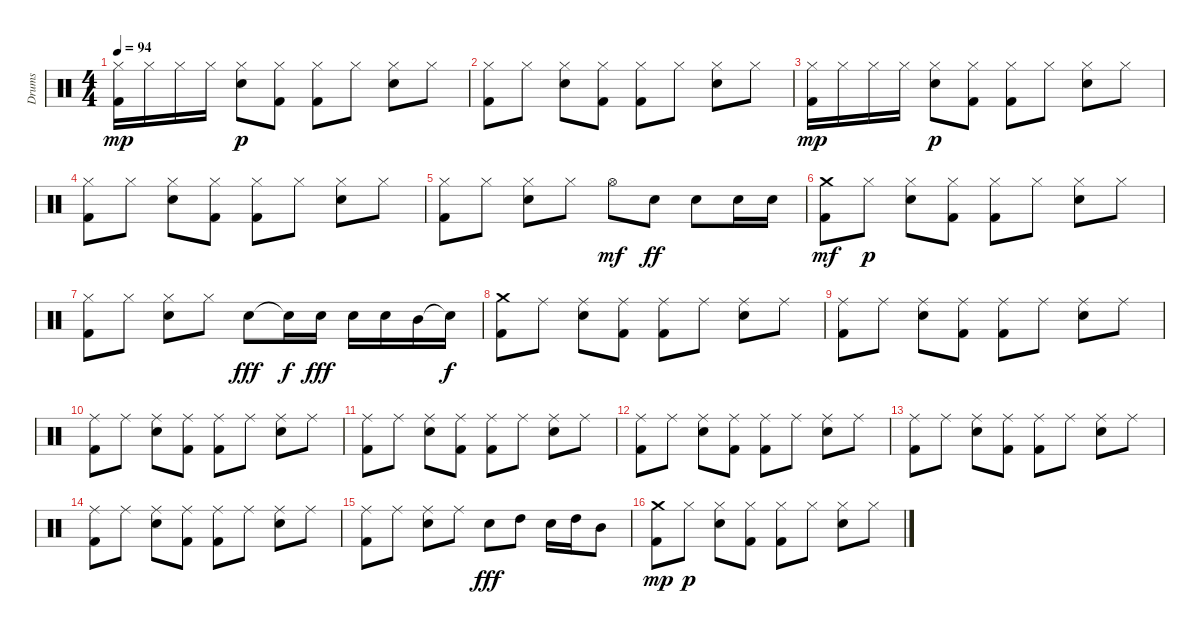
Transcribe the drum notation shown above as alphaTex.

\track ("Drums" "Drums") {instrument percussion}
\staff {score}
\articulation defaults
\ts (4 4)
\tempo 94
\clef neutral
\ks c
("Hi-Hat (closed)" "Kick (hit) 2").16{dy mp} "Hi-Hat (closed)".16 "Hi-Hat (closed)".16 "Hi-Hat (closed)".16 ("Hi-Hat (closed)" "Snare (hit) 2").8{dy p} ("Hi-Hat (closed)" "Kick (hit) 2").8 ("Hi-Hat (closed)" "Kick (hit) 2").8 "Hi-Hat (closed)".8 ("Hi-Hat (closed)" "Snare (hit) 2").8 "Hi-Hat (closed)".8 |
("Hi-Hat (closed)" "Kick (hit) 2").8 "Hi-Hat (closed)".8 ("Hi-Hat (closed)" "Snare (hit) 2").8 ("Hi-Hat (closed)" "Kick (hit) 2").8 ("Hi-Hat (closed)" "Kick (hit) 2").8 "Hi-Hat (closed)".8 ("Hi-Hat (closed)" "Snare (hit) 2").8 "Hi-Hat (closed)".8 |
("Hi-Hat (closed)" "Kick (hit) 2").16{dy mp} "Hi-Hat (closed)".16 "Hi-Hat (closed)".16 "Hi-Hat (closed)".16 ("Hi-Hat (closed)" "Snare (hit) 2").8{dy p} ("Hi-Hat (closed)" "Kick (hit) 2").8 ("Hi-Hat (closed)" "Kick (hit) 2").8 "Hi-Hat (closed)".8 ("Hi-Hat (closed)" "Snare (hit) 2").8 "Hi-Hat (closed)".8 |
("Hi-Hat (closed)" "Kick (hit) 2").8 "Hi-Hat (closed)".8 ("Hi-Hat (closed)" "Snare (hit) 2").8 ("Hi-Hat (closed)" "Kick (hit) 2").8 ("Hi-Hat (closed)" "Kick (hit) 2").8 "Hi-Hat (closed)".8 ("Hi-Hat (closed)" "Snare (hit) 2").8 "Hi-Hat (closed)".8 |
("Hi-Hat (closed)" "Kick (hit) 2").8 "Hi-Hat (closed)".8 ("Hi-Hat (closed)" "Snare (hit) 2").8 "Hi-Hat (closed)".8 "Hi-Hat (open)".8{dy mf} "Snare (hit) 2".8{dy ff} "Snare (hit) 2".8 "Snare (hit) 2".16 "Snare (hit) 2".16 |
("Crash medium (hit)" "Kick (hit) 2").8{dy mf} "Hi-Hat (closed)".8{dy p} ("Hi-Hat (closed)" "Snare (hit) 2").8 ("Hi-Hat (closed)" "Kick (hit) 2").8 ("Hi-Hat (closed)" "Kick (hit) 2").8 "Hi-Hat (closed)".8 ("Hi-Hat (closed)" "Snare (hit) 2").8 "Hi-Hat (closed)".8 |
("Hi-Hat (closed)" "Kick (hit) 2").8 "Hi-Hat (closed)".8 ("Hi-Hat (closed)" "Snare (hit) 2").8 "Hi-Hat (closed)".8 "Snare (hit) 2".8{dy fff} "Snare (hit)"{t}.16{dy f} "Snare (hit) 2".16{dy fff} "Snare (hit) 2".16 "Snare (hit) 2".16 "Mid Tom (hit)".16 "Snare (hit)"{t}.16{dy f} |
("Crash medium (hit)" "Kick (hit) 2").8 "Ride (middle)".8 ("Ride (middle)" "Snare (hit) 2").8 ("Ride (middle)" "Kick (hit) 2").8 ("Ride (middle)" "Kick (hit) 2").8 "Ride (middle)".8 ("Ride (middle)" "Snare (hit) 2").8 "Ride (middle)".8 |
("Ride (middle)" "Kick (hit) 2").8 "Ride (middle)".8 ("Ride (middle)" "Snare (hit) 2").8 ("Ride (middle)" "Kick (hit) 2").8 ("Ride (middle)" "Kick (hit) 2").8 "Ride (middle)".8 ("Ride (middle)" "Snare (hit) 2").8 "Ride (middle)".8 |
("Ride (middle)" "Kick (hit) 2").8 "Ride (middle)".8 ("Ride (middle)" "Snare (hit) 2").8 ("Ride (middle)" "Kick (hit) 2").8 ("Ride (middle)" "Kick (hit) 2").8 "Ride (middle)".8 ("Ride (middle)" "Snare (hit) 2").8 "Ride (middle)".8 |
("Ride (middle)" "Kick (hit) 2").8 "Ride (middle)".8 ("Ride (middle)" "Snare (hit) 2").8 ("Ride (middle)" "Kick (hit) 2").8 ("Ride (middle)" "Kick (hit) 2").8 "Ride (middle)".8 ("Ride (middle)" "Snare (hit) 2").8 "Ride (middle)".8 |
("Ride (middle)" "Kick (hit) 2").8 "Ride (middle)".8 ("Ride (middle)" "Snare (hit) 2").8 ("Ride (middle)" "Kick (hit) 2").8 ("Ride (middle)" "Kick (hit) 2").8 "Ride (middle)".8 ("Ride (middle)" "Snare (hit) 2").8 "Ride (middle)".8 |
("Ride (middle)" "Kick (hit) 2").8 "Ride (middle)".8 ("Ride (middle)" "Snare (hit) 2").8 ("Ride (middle)" "Kick (hit) 2").8 ("Ride (middle)" "Kick (hit) 2").8 "Ride (middle)".8 ("Ride (middle)" "Snare (hit) 2").8 "Ride (middle)".8 |
("Ride (middle)" "Kick (hit) 2").8 "Ride (middle)".8 ("Ride (middle)" "Snare (hit) 2").8 ("Ride (middle)" "Kick (hit) 2").8 ("Ride (middle)" "Kick (hit) 2").8 "Ride (middle)".8 ("Ride (middle)" "Snare (hit) 2").8 "Ride (middle)".8 |
("Ride (middle)" "Kick (hit) 2").8 "Ride (middle)".8 ("Ride (middle)" "Snare (hit) 2").8 "Ride (middle)".8 "Snare (hit) 2".8{dy fff} "High Tom (hit)".8 "Snare (hit) 2".16 "High Tom (hit)".16 "Mid Tom (hit)".8 |
("Crash medium (hit)" "Kick (hit) 2").8{dy mp} "Hi-Hat (closed)".8{dy p} ("Hi-Hat (closed)" "Snare (hit) 2").8 ("Hi-Hat (closed)" "Kick (hit) 2").8 ("Hi-Hat (closed)" "Kick (hit) 2").8 "Hi-Hat (closed)".8 ("Hi-Hat (closed)" "Snare (hit) 2").8 "Hi-Hat (closed)".8
